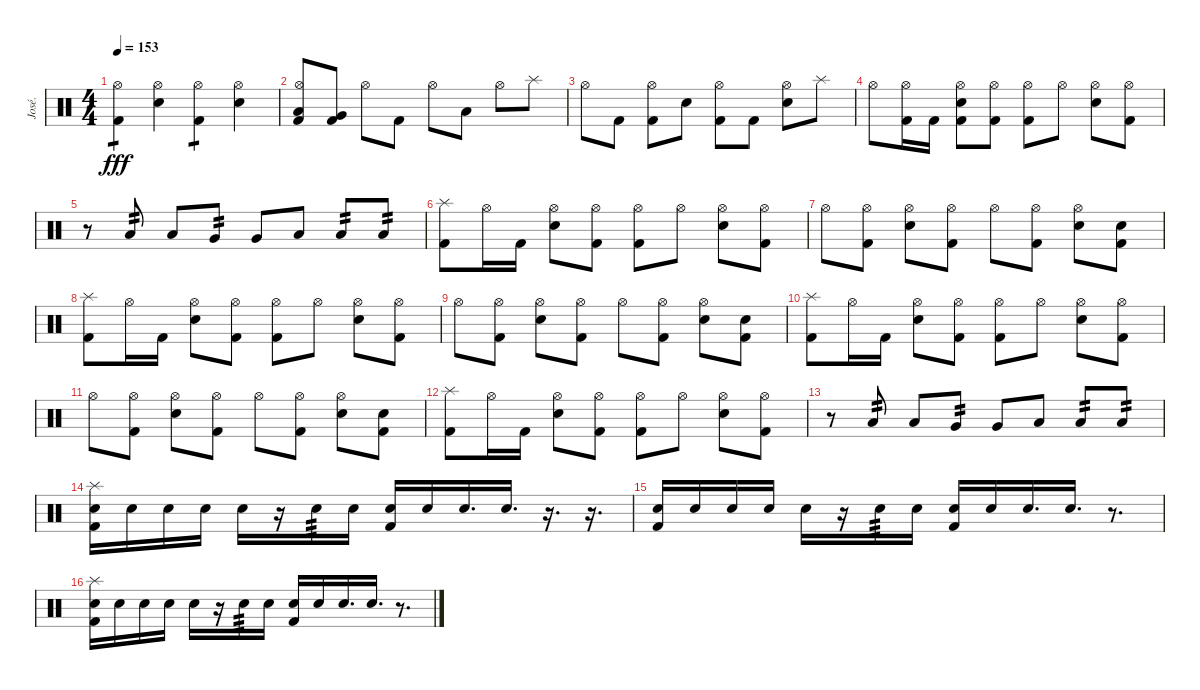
\track ("José." "José.") {instrument percussion}
\staff {score}
\articulation defaults
\ts (4 4)
\tempo 153
\clef neutral
\ks c
("Kick (hit) 2" "Hi-Hat (open)").4{tp 1 dy fff} ("Snare (hit) 2" "Hi-Hat (open)").4 ("Kick (hit) 2" "Hi-Hat (open)").4{tp 1} ("Snare (hit) 2" "Hi-Hat (open)").4 |
("Kick (hit) 2" "Low Floor Tom (hit)" "Hi-Hat (open)").8 ("Kick (hit) 2" "Very Low Tom (hit)").8 "Hi-Hat (open)".8 "Kick (hit) 2".8 "Hi-Hat (open)".8 "Low Floor Tom (hit)".8 "Hi-Hat (open)".8 "Splash (hit)".8 |
"Hi-Hat (open)".8 "Kick (hit) 2".8 ("Kick (hit) 2" "Hi-Hat (open)").8 "Snare (hit) 2".8 ("Kick (hit) 2" "Hi-Hat (open)").8 "Kick (hit) 2".8 ("Snare (hit) 2" "Hi-Hat (open)").8 "Splash (hit)".8 |
"Hi-Hat (open)".8 ("Kick (hit) 2" "Hi-Hat (open)").16 "Kick (hit) 2".16 ("Kick (hit) 2" "Snare (hit) 2" "Hi-Hat (open)").8 ("Kick (hit) 2" "Hi-Hat (open)").8 ("Kick (hit) 2" "Hi-Hat (open)").8 "Hi-Hat (open)".8 ("Snare (hit) 2" "Hi-Hat (open)").8 ("Kick (hit) 2" "Hi-Hat (open)").8 |
r.8 "Low Tom (hit)".8{tp 2} "Low Tom (hit)".8 "Very Low Tom (hit)".8{tp 2} "Very Low Tom (hit)".8 "Low Floor Tom (hit)".8 "Low Floor Tom (hit)".8{tp 2} "Low Floor Tom (hit)".8{tp 2} |
("Kick (hit) 2" "Splash (hit)").8 "Hi-Hat (open)".16 "Kick (hit) 2".16 ("Snare (hit) 2" "Hi-Hat (open)").8 ("Kick (hit) 2" "Hi-Hat (open)").8 ("Kick (hit) 2" "Hi-Hat (open)").8 "Hi-Hat (open)".8 ("Snare (hit) 2" "Hi-Hat (open)").8 ("Kick (hit) 2" "Hi-Hat (open)").8 |
"Hi-Hat (open)".8 ("Kick (hit) 2" "Hi-Hat (open)").8 ("Snare (hit) 2" "Hi-Hat (open)").8 ("Kick (hit) 2" "Hi-Hat (open)").8 "Hi-Hat (open)".8 ("Kick (hit) 2" "Hi-Hat (open)").8 ("Snare (hit) 2" "Hi-Hat (open)").8 ("Kick (hit) 2" "Hand Clap (hit)").8 |
("Kick (hit) 2" "Splash (hit)").8 "Hi-Hat (open)".16 "Kick (hit) 2".16 ("Snare (hit) 2" "Hi-Hat (open)").8 ("Kick (hit) 2" "Hi-Hat (open)").8 ("Kick (hit) 2" "Hi-Hat (open)").8 "Hi-Hat (open)".8 ("Snare (hit) 2" "Hi-Hat (open)").8 ("Kick (hit) 2" "Hi-Hat (open)").8 |
"Hi-Hat (open)".8 ("Kick (hit) 2" "Hi-Hat (open)").8 ("Snare (hit) 2" "Hi-Hat (open)").8 ("Kick (hit) 2" "Hi-Hat (open)").8 "Hi-Hat (open)".8 ("Kick (hit) 2" "Hi-Hat (open)").8 ("Snare (hit) 2" "Hi-Hat (open)").8 ("Kick (hit) 2" "Hand Clap (hit)").8 |
("Kick (hit) 2" "Splash (hit)").8 "Hi-Hat (open)".16 "Kick (hit) 2".16 ("Snare (hit) 2" "Hi-Hat (open)").8 ("Kick (hit) 2" "Hi-Hat (open)").8 ("Kick (hit) 2" "Hi-Hat (open)").8 "Hi-Hat (open)".8 ("Snare (hit) 2" "Hi-Hat (open)").8 ("Kick (hit) 2" "Hi-Hat (open)").8 |
"Hi-Hat (open)".8 ("Kick (hit) 2" "Hi-Hat (open)").8 ("Snare (hit) 2" "Hi-Hat (open)").8 ("Kick (hit) 2" "Hi-Hat (open)").8 "Hi-Hat (open)".8 ("Kick (hit) 2" "Hi-Hat (open)").8 ("Snare (hit) 2" "Hi-Hat (open)").8 ("Kick (hit) 2" "Hand Clap (hit)").8 |
("Kick (hit) 2" "Splash (hit)").8 "Hi-Hat (open)".16 "Kick (hit) 2".16 ("Snare (hit) 2" "Hi-Hat (open)").8 ("Kick (hit) 2" "Hi-Hat (open)").8 ("Kick (hit) 2" "Hi-Hat (open)").8 "Hi-Hat (open)".8 ("Snare (hit) 2" "Hi-Hat (open)").8 ("Kick (hit) 2" "Hi-Hat (open)").8 |
r.8 "Low Tom (hit)".8{tp 2} "Low Tom (hit)".8 "Very Low Tom (hit)".8{tp 2} "Very Low Tom (hit)".8 "Low Floor Tom (hit)".8 "Low Floor Tom (hit)".8{tp 2} "Low Floor Tom (hit)".8{tp 2} |
("Kick (hit) 2" "Snare (hit) 2" "Splash (hit)").16 "Snare (hit) 2".16 "Snare (hit) 2".16 "Snare (hit) 2".16 "Snare (hit) 2".16 r.16 "Snare (hit) 2".16{tp 3} "Snare (hit) 2".16 ("Kick (hit) 2" "Snare (hit) 2").16 "Snare (hit) 2".16 "Snare (hit) 2".16{d} "Snare (hit) 2".16{d} r.16{d} r.16{d} |
("Kick (hit) 2" "Snare (hit) 2").16 "Snare (hit) 2".16 "Snare (hit) 2".16 "Snare (hit) 2".16 "Snare (hit) 2".16 r.16 "Snare (hit) 2".16{tp 3} "Snare (hit) 2".16 ("Kick (hit) 2" "Snare (hit) 2").16 "Snare (hit) 2".16 "Snare (hit) 2".16{d} "Snare (hit) 2".16{d} r.8{d} |
("Kick (hit) 2" "Snare (hit) 2" "Splash (hit)").16 "Snare (hit) 2".16 "Snare (hit) 2".16 "Snare (hit) 2".16 "Snare (hit) 2".16 r.16 "Snare (hit) 2".16{tp 3} "Snare (hit) 2".16 ("Kick (hit) 2" "Snare (hit) 2").16 "Snare (hit) 2".16 "Snare (hit) 2".16{d} "Snare (hit) 2".16{d} r.8{d}
